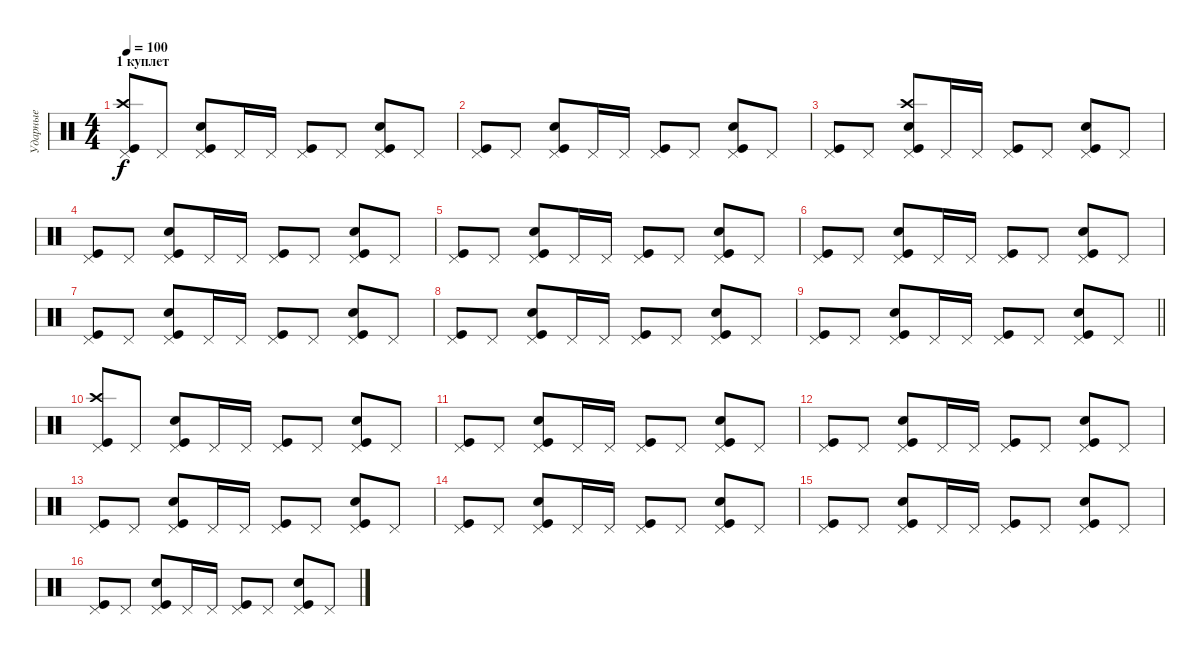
\track ("Ударные" "Ударные") {instrument percussion}
\staff {score}
\articulation defaults
\ts (4 4)
\section ("" "1 куплет")
\tempo 100
\clef neutral
\ks c
("Pedal Hi-Hat (hit)" "Crash high (hit)" "Kick (hit)").8{dy f} "Pedal Hi-Hat (hit)".8 ("Pedal Hi-Hat (hit)" "Kick (hit)" "Snare (hit) 2").8 "Pedal Hi-Hat (hit)".16 "Pedal Hi-Hat (hit)".16 ("Pedal Hi-Hat (hit)" "Kick (hit)").8 "Pedal Hi-Hat (hit)".8 ("Pedal Hi-Hat (hit)" "Kick (hit)" "Snare (hit) 2").8 "Pedal Hi-Hat (hit)".8 |
("Pedal Hi-Hat (hit)" "Kick (hit)").8 "Pedal Hi-Hat (hit)".8 ("Pedal Hi-Hat (hit)" "Kick (hit)" "Snare (hit) 2").8 "Pedal Hi-Hat (hit)".16 "Pedal Hi-Hat (hit)".16 ("Pedal Hi-Hat (hit)" "Kick (hit)").8 "Pedal Hi-Hat (hit)".8 ("Pedal Hi-Hat (hit)" "Kick (hit)" "Snare (hit) 2").8 "Pedal Hi-Hat (hit)".8 |
("Pedal Hi-Hat (hit)" "Kick (hit)").8 "Pedal Hi-Hat (hit)".8 ("Pedal Hi-Hat (hit)" "Kick (hit)" "Snare (hit) 2" "Crash high (hit)").8 "Pedal Hi-Hat (hit)".16 "Pedal Hi-Hat (hit)".16 ("Pedal Hi-Hat (hit)" "Kick (hit)").8 "Pedal Hi-Hat (hit)".8 ("Pedal Hi-Hat (hit)" "Kick (hit)" "Snare (hit) 2").8 "Pedal Hi-Hat (hit)".8 |
("Pedal Hi-Hat (hit)" "Kick (hit)").8 "Pedal Hi-Hat (hit)".8 ("Pedal Hi-Hat (hit)" "Kick (hit)" "Snare (hit) 2").8 "Pedal Hi-Hat (hit)".16 "Pedal Hi-Hat (hit)".16 ("Pedal Hi-Hat (hit)" "Kick (hit)").8 "Pedal Hi-Hat (hit)".8 ("Pedal Hi-Hat (hit)" "Kick (hit)" "Snare (hit) 2").8 "Pedal Hi-Hat (hit)".8 |
("Pedal Hi-Hat (hit)" "Kick (hit)").8 "Pedal Hi-Hat (hit)".8 ("Pedal Hi-Hat (hit)" "Kick (hit)" "Snare (hit) 2").8 "Pedal Hi-Hat (hit)".16 "Pedal Hi-Hat (hit)".16 ("Pedal Hi-Hat (hit)" "Kick (hit)").8 "Pedal Hi-Hat (hit)".8 ("Pedal Hi-Hat (hit)" "Kick (hit)" "Snare (hit) 2").8 "Pedal Hi-Hat (hit)".8 |
("Pedal Hi-Hat (hit)" "Kick (hit)").8 "Pedal Hi-Hat (hit)".8 ("Pedal Hi-Hat (hit)" "Kick (hit)" "Snare (hit) 2").8 "Pedal Hi-Hat (hit)".16 "Pedal Hi-Hat (hit)".16 ("Pedal Hi-Hat (hit)" "Kick (hit)").8 "Pedal Hi-Hat (hit)".8 ("Pedal Hi-Hat (hit)" "Kick (hit)" "Snare (hit) 2").8 "Pedal Hi-Hat (hit)".8 |
("Pedal Hi-Hat (hit)" "Kick (hit)").8 "Pedal Hi-Hat (hit)".8 ("Pedal Hi-Hat (hit)" "Kick (hit)" "Snare (hit) 2").8 "Pedal Hi-Hat (hit)".16 "Pedal Hi-Hat (hit)".16 ("Pedal Hi-Hat (hit)" "Kick (hit)").8 "Pedal Hi-Hat (hit)".8 ("Pedal Hi-Hat (hit)" "Kick (hit)" "Snare (hit) 2").8 "Pedal Hi-Hat (hit)".8 |
("Pedal Hi-Hat (hit)" "Kick (hit)").8 "Pedal Hi-Hat (hit)".8 ("Pedal Hi-Hat (hit)" "Kick (hit)" "Snare (hit) 2").8 "Pedal Hi-Hat (hit)".16 "Pedal Hi-Hat (hit)".16 ("Pedal Hi-Hat (hit)" "Kick (hit)").8 "Pedal Hi-Hat (hit)".8 ("Pedal Hi-Hat (hit)" "Kick (hit)" "Snare (hit) 2").8 "Pedal Hi-Hat (hit)".8 |
\barLineRight lightlight
("Pedal Hi-Hat (hit)" "Kick (hit)").8 "Pedal Hi-Hat (hit)".8 ("Pedal Hi-Hat (hit)" "Kick (hit)" "Snare (hit) 2").8 "Pedal Hi-Hat (hit)".16 "Pedal Hi-Hat (hit)".16 ("Pedal Hi-Hat (hit)" "Kick (hit)").8 "Pedal Hi-Hat (hit)".8 ("Pedal Hi-Hat (hit)" "Kick (hit)" "Snare (hit) 2").8 "Pedal Hi-Hat (hit)".8 |
\section ("" "")
("Pedal Hi-Hat (hit)" "Kick (hit)" "Crash high (hit)").8 "Pedal Hi-Hat (hit)".8 ("Pedal Hi-Hat (hit)" "Kick (hit)" "Snare (hit) 2").8 "Pedal Hi-Hat (hit)".16 "Pedal Hi-Hat (hit)".16 ("Pedal Hi-Hat (hit)" "Kick (hit)").8 "Pedal Hi-Hat (hit)".8 ("Pedal Hi-Hat (hit)" "Kick (hit)" "Snare (hit) 2").8 "Pedal Hi-Hat (hit)".8 |
("Pedal Hi-Hat (hit)" "Kick (hit)").8 "Pedal Hi-Hat (hit)".8 ("Pedal Hi-Hat (hit)" "Kick (hit)" "Snare (hit) 2").8 "Pedal Hi-Hat (hit)".16 "Pedal Hi-Hat (hit)".16 ("Pedal Hi-Hat (hit)" "Kick (hit)").8 "Pedal Hi-Hat (hit)".8 ("Pedal Hi-Hat (hit)" "Kick (hit)" "Snare (hit) 2").8 "Pedal Hi-Hat (hit)".8 |
("Pedal Hi-Hat (hit)" "Kick (hit)").8 "Pedal Hi-Hat (hit)".8 ("Pedal Hi-Hat (hit)" "Kick (hit)" "Snare (hit) 2").8 "Pedal Hi-Hat (hit)".16 "Pedal Hi-Hat (hit)".16 ("Pedal Hi-Hat (hit)" "Kick (hit)").8 "Pedal Hi-Hat (hit)".8 ("Pedal Hi-Hat (hit)" "Kick (hit)" "Snare (hit) 2").8 "Pedal Hi-Hat (hit)".8 |
("Pedal Hi-Hat (hit)" "Kick (hit)").8 "Pedal Hi-Hat (hit)".8 ("Pedal Hi-Hat (hit)" "Kick (hit)" "Snare (hit) 2").8 "Pedal Hi-Hat (hit)".16 "Pedal Hi-Hat (hit)".16 ("Pedal Hi-Hat (hit)" "Kick (hit)").8 "Pedal Hi-Hat (hit)".8 ("Pedal Hi-Hat (hit)" "Kick (hit)" "Snare (hit) 2").8 "Pedal Hi-Hat (hit)".8 |
("Kick (hit)" "Pedal Hi-Hat (hit)").8 "Pedal Hi-Hat (hit)".8 ("Kick (hit)" "Pedal Hi-Hat (hit)" "Snare (hit) 2").8 "Pedal Hi-Hat (hit)".16 "Pedal Hi-Hat (hit)".16 ("Kick (hit)" "Pedal Hi-Hat (hit)").8 "Pedal Hi-Hat (hit)".8 ("Kick (hit)" "Pedal Hi-Hat (hit)" "Snare (hit) 2").8 "Pedal Hi-Hat (hit)".8 |
("Kick (hit)" "Pedal Hi-Hat (hit)").8 "Pedal Hi-Hat (hit)".8 ("Pedal Hi-Hat (hit)" "Snare (hit) 2" "Kick (hit)").8 "Pedal Hi-Hat (hit)".16 "Pedal Hi-Hat (hit)".16 ("Kick (hit)" "Pedal Hi-Hat (hit)").8 "Pedal Hi-Hat (hit)".8 ("Kick (hit)" "Pedal Hi-Hat (hit)" "Snare (hit) 2").8 "Pedal Hi-Hat (hit)".8 |
("Kick (hit)" "Pedal Hi-Hat (hit)").8 "Pedal Hi-Hat (hit)".8 ("Kick (hit)" "Pedal Hi-Hat (hit)" "Snare (hit) 2").8 "Pedal Hi-Hat (hit)".16 "Pedal Hi-Hat (hit)".16 ("Kick (hit)" "Pedal Hi-Hat (hit)").8 "Pedal Hi-Hat (hit)".8 ("Kick (hit)" "Pedal Hi-Hat (hit)" "Snare (hit) 2").8 "Pedal Hi-Hat (hit)".8
